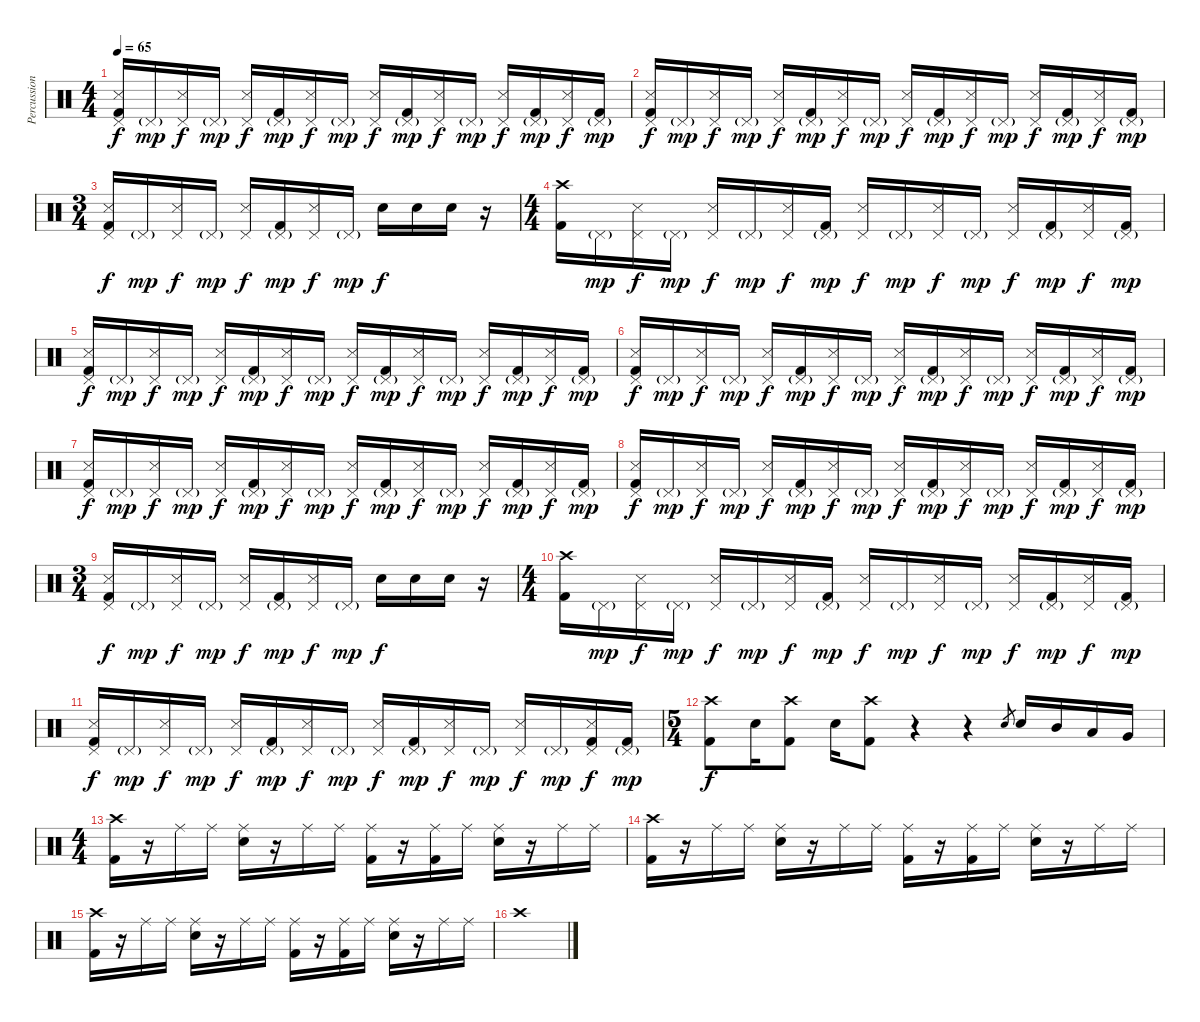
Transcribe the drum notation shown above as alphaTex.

\track ("Percussioni" "Percussion") {instrument percussion}
\staff {score}
\articulation defaults
\ts (4 4)
\tempo 65
\clef neutral
\ks c
("Pedal Hi-Hat (hit)" "Snare (side stick) 3" "Kick (hit) 2").16{dy f} "Pedal Hi-Hat (hit)"{g}.16{dy mp} ("Pedal Hi-Hat (hit)" "Snare (side stick) 3").16{dy f} "Pedal Hi-Hat (hit)"{g}.16{dy mp} ("Pedal Hi-Hat (hit)" "Snare (side stick) 3").16{dy f} ("Pedal Hi-Hat (hit)"{g} "Kick (hit) 2").16{dy mp} ("Pedal Hi-Hat (hit)" "Snare (side stick) 3").16{dy f} "Pedal Hi-Hat (hit)"{g}.16{dy mp} ("Pedal Hi-Hat (hit)" "Snare (side stick) 3").16{dy f} ("Pedal Hi-Hat (hit)"{g} "Kick (hit) 2").16{dy mp} ("Pedal Hi-Hat (hit)" "Snare (side stick) 3").16{dy f} "Pedal Hi-Hat (hit)"{g}.16{dy mp} ("Pedal Hi-Hat (hit)" "Snare (side stick) 3").16{dy f} ("Pedal Hi-Hat (hit)"{g} "Kick (hit) 2").16{dy mp} ("Pedal Hi-Hat (hit)" "Snare (side stick) 3").16{dy f} ("Pedal Hi-Hat (hit)"{g} "Kick (hit) 2").16{dy mp} |
("Pedal Hi-Hat (hit)" "Snare (side stick) 3" "Kick (hit) 2").16{dy f} "Pedal Hi-Hat (hit)"{g}.16{dy mp} ("Pedal Hi-Hat (hit)" "Snare (side stick) 3").16{dy f} "Pedal Hi-Hat (hit)"{g}.16{dy mp} ("Pedal Hi-Hat (hit)" "Snare (side stick) 3").16{dy f} ("Pedal Hi-Hat (hit)"{g} "Kick (hit) 2").16{dy mp} ("Pedal Hi-Hat (hit)" "Snare (side stick) 3").16{dy f} "Pedal Hi-Hat (hit)"{g}.16{dy mp} ("Pedal Hi-Hat (hit)" "Snare (side stick) 3").16{dy f} ("Pedal Hi-Hat (hit)"{g} "Kick (hit) 2").16{dy mp} ("Pedal Hi-Hat (hit)" "Snare (side stick) 3").16{dy f} "Pedal Hi-Hat (hit)"{g}.16{dy mp} ("Pedal Hi-Hat (hit)" "Snare (side stick) 3").16{dy f} ("Pedal Hi-Hat (hit)"{g} "Kick (hit) 2").16{dy mp} ("Pedal Hi-Hat (hit)" "Snare (side stick) 3").16{dy f} ("Pedal Hi-Hat (hit)"{g} "Kick (hit) 2").16{dy mp} |
\ts (3 4)
("Pedal Hi-Hat (hit)" "Snare (side stick) 3" "Kick (hit) 2").16{dy f} "Pedal Hi-Hat (hit)"{g}.16{dy mp} ("Pedal Hi-Hat (hit)" "Snare (side stick) 3").16{dy f} "Pedal Hi-Hat (hit)"{g}.16{dy mp} ("Pedal Hi-Hat (hit)" "Snare (side stick) 3").16{dy f} ("Pedal Hi-Hat (hit)"{g} "Kick (hit) 2").16{dy mp} ("Pedal Hi-Hat (hit)" "Snare (side stick) 3").16{dy f} "Pedal Hi-Hat (hit)"{g}.16{dy mp} "Snare (hit) 2".16{dy f} "Snare (hit) 2".16 "Snare (hit) 2".16 r.16 |
\ts (4 4)
("Crash high (hit)" "Kick (hit) 2").16 "Pedal Hi-Hat (hit)"{g}.16{dy mp} ("Pedal Hi-Hat (hit)" "Snare (side stick) 3").16{dy f} "Pedal Hi-Hat (hit)"{g}.16{dy mp} ("Pedal Hi-Hat (hit)" "Snare (side stick) 3").16{dy f} "Pedal Hi-Hat (hit)"{g}.16{dy mp} ("Pedal Hi-Hat (hit)" "Snare (side stick) 3").16{dy f} ("Pedal Hi-Hat (hit)"{g} "Kick (hit) 2").16{dy mp} ("Pedal Hi-Hat (hit)" "Snare (side stick) 3").16{dy f} "Pedal Hi-Hat (hit)"{g}.16{dy mp} ("Pedal Hi-Hat (hit)" "Snare (side stick) 3").16{dy f} "Pedal Hi-Hat (hit)"{g}.16{dy mp} ("Pedal Hi-Hat (hit)" "Snare (side stick) 3").16{dy f} ("Pedal Hi-Hat (hit)"{g} "Kick (hit) 2").16{dy mp} ("Pedal Hi-Hat (hit)" "Snare (side stick) 3").16{dy f} ("Pedal Hi-Hat (hit)"{g} "Kick (hit) 2").16{dy mp} |
("Pedal Hi-Hat (hit)" "Snare (side stick) 3" "Kick (hit) 2").16{dy f} "Pedal Hi-Hat (hit)"{g}.16{dy mp} ("Pedal Hi-Hat (hit)" "Snare (side stick) 3").16{dy f} "Pedal Hi-Hat (hit)"{g}.16{dy mp} ("Pedal Hi-Hat (hit)" "Snare (side stick) 3").16{dy f} ("Pedal Hi-Hat (hit)"{g} "Kick (hit) 2").16{dy mp} ("Pedal Hi-Hat (hit)" "Snare (side stick) 3").16{dy f} "Pedal Hi-Hat (hit)"{g}.16{dy mp} ("Pedal Hi-Hat (hit)" "Snare (side stick) 3").16{dy f} ("Pedal Hi-Hat (hit)"{g} "Kick (hit) 2").16{dy mp} ("Pedal Hi-Hat (hit)" "Snare (side stick) 3").16{dy f} "Pedal Hi-Hat (hit)"{g}.16{dy mp} ("Pedal Hi-Hat (hit)" "Snare (side stick) 3").16{dy f} ("Pedal Hi-Hat (hit)"{g} "Kick (hit) 2").16{dy mp} ("Pedal Hi-Hat (hit)" "Snare (side stick) 3").16{dy f} ("Pedal Hi-Hat (hit)"{g} "Kick (hit) 2").16{dy mp} |
("Pedal Hi-Hat (hit)" "Snare (side stick) 3" "Kick (hit) 2").16{dy f} "Pedal Hi-Hat (hit)"{g}.16{dy mp} ("Pedal Hi-Hat (hit)" "Snare (side stick) 3").16{dy f} "Pedal Hi-Hat (hit)"{g}.16{dy mp} ("Pedal Hi-Hat (hit)" "Snare (side stick) 3").16{dy f} ("Pedal Hi-Hat (hit)"{g} "Kick (hit) 2").16{dy mp} ("Pedal Hi-Hat (hit)" "Snare (side stick) 3").16{dy f} "Pedal Hi-Hat (hit)"{g}.16{dy mp} ("Pedal Hi-Hat (hit)" "Snare (side stick) 3").16{dy f} ("Pedal Hi-Hat (hit)"{g} "Kick (hit) 2").16{dy mp} ("Pedal Hi-Hat (hit)" "Snare (side stick) 3").16{dy f} "Pedal Hi-Hat (hit)"{g}.16{dy mp} ("Pedal Hi-Hat (hit)" "Snare (side stick) 3").16{dy f} ("Pedal Hi-Hat (hit)"{g} "Kick (hit) 2").16{dy mp} ("Pedal Hi-Hat (hit)" "Snare (side stick) 3").16{dy f} ("Pedal Hi-Hat (hit)"{g} "Kick (hit) 2").16{dy mp} |
("Pedal Hi-Hat (hit)" "Snare (side stick) 3" "Kick (hit) 2").16{dy f} "Pedal Hi-Hat (hit)"{g}.16{dy mp} ("Pedal Hi-Hat (hit)" "Snare (side stick) 3").16{dy f} "Pedal Hi-Hat (hit)"{g}.16{dy mp} ("Pedal Hi-Hat (hit)" "Snare (side stick) 3").16{dy f} ("Pedal Hi-Hat (hit)"{g} "Kick (hit) 2").16{dy mp} ("Pedal Hi-Hat (hit)" "Snare (side stick) 3").16{dy f} "Pedal Hi-Hat (hit)"{g}.16{dy mp} ("Pedal Hi-Hat (hit)" "Snare (side stick) 3").16{dy f} ("Pedal Hi-Hat (hit)"{g} "Kick (hit) 2").16{dy mp} ("Pedal Hi-Hat (hit)" "Snare (side stick) 3").16{dy f} "Pedal Hi-Hat (hit)"{g}.16{dy mp} ("Pedal Hi-Hat (hit)" "Snare (side stick) 3").16{dy f} ("Pedal Hi-Hat (hit)"{g} "Kick (hit) 2").16{dy mp} ("Pedal Hi-Hat (hit)" "Snare (side stick) 3").16{dy f} ("Pedal Hi-Hat (hit)"{g} "Kick (hit) 2").16{dy mp} |
("Pedal Hi-Hat (hit)" "Snare (side stick) 3" "Kick (hit) 2").16{dy f} "Pedal Hi-Hat (hit)"{g}.16{dy mp} ("Pedal Hi-Hat (hit)" "Snare (side stick) 3").16{dy f} "Pedal Hi-Hat (hit)"{g}.16{dy mp} ("Pedal Hi-Hat (hit)" "Snare (side stick) 3").16{dy f} ("Pedal Hi-Hat (hit)"{g} "Kick (hit) 2").16{dy mp} ("Pedal Hi-Hat (hit)" "Snare (side stick) 3").16{dy f} "Pedal Hi-Hat (hit)"{g}.16{dy mp} ("Pedal Hi-Hat (hit)" "Snare (side stick) 3").16{dy f} ("Pedal Hi-Hat (hit)"{g} "Kick (hit) 2").16{dy mp} ("Pedal Hi-Hat (hit)" "Snare (side stick) 3").16{dy f} "Pedal Hi-Hat (hit)"{g}.16{dy mp} ("Pedal Hi-Hat (hit)" "Snare (side stick) 3").16{dy f} ("Pedal Hi-Hat (hit)"{g} "Kick (hit) 2").16{dy mp} ("Pedal Hi-Hat (hit)" "Snare (side stick) 3").16{dy f} ("Pedal Hi-Hat (hit)"{g} "Kick (hit) 2").16{dy mp} |
\ts (3 4)
("Pedal Hi-Hat (hit)" "Snare (side stick) 3" "Kick (hit) 2").16{dy f} "Pedal Hi-Hat (hit)"{g}.16{dy mp} ("Pedal Hi-Hat (hit)" "Snare (side stick) 3").16{dy f} "Pedal Hi-Hat (hit)"{g}.16{dy mp} ("Pedal Hi-Hat (hit)" "Snare (side stick) 3").16{dy f} ("Pedal Hi-Hat (hit)"{g} "Kick (hit) 2").16{dy mp} ("Pedal Hi-Hat (hit)" "Snare (side stick) 3").16{dy f} "Pedal Hi-Hat (hit)"{g}.16{dy mp} "Snare (hit) 2".16{dy f} "Snare (hit) 2".16 "Snare (hit) 2".16 r.16 |
\ts (4 4)
("Crash high (hit)" "Kick (hit) 2").16 "Pedal Hi-Hat (hit)"{g}.16{dy mp} ("Pedal Hi-Hat (hit)" "Snare (side stick) 3").16{dy f} "Pedal Hi-Hat (hit)"{g}.16{dy mp} ("Pedal Hi-Hat (hit)" "Snare (side stick) 3").16{dy f} "Pedal Hi-Hat (hit)"{g}.16{dy mp} ("Pedal Hi-Hat (hit)" "Snare (side stick) 3").16{dy f} ("Pedal Hi-Hat (hit)"{g} "Kick (hit) 2").16{dy mp} ("Pedal Hi-Hat (hit)" "Snare (side stick) 3").16{dy f} "Pedal Hi-Hat (hit)"{g}.16{dy mp} ("Pedal Hi-Hat (hit)" "Snare (side stick) 3").16{dy f} "Pedal Hi-Hat (hit)"{g}.16{dy mp} ("Pedal Hi-Hat (hit)" "Snare (side stick) 3").16{dy f} ("Pedal Hi-Hat (hit)"{g} "Kick (hit) 2").16{dy mp} ("Pedal Hi-Hat (hit)" "Snare (side stick) 3").16{dy f} ("Pedal Hi-Hat (hit)"{g} "Kick (hit) 2").16{dy mp} |
("Pedal Hi-Hat (hit)" "Snare (side stick) 3" "Kick (hit) 2").16{dy f} "Pedal Hi-Hat (hit)"{g}.16{dy mp} ("Pedal Hi-Hat (hit)" "Snare (side stick) 3").16{dy f} "Pedal Hi-Hat (hit)"{g}.16{dy mp} ("Pedal Hi-Hat (hit)" "Snare (side stick) 3").16{dy f} ("Pedal Hi-Hat (hit)"{g} "Kick (hit) 2").16{dy mp} ("Pedal Hi-Hat (hit)" "Snare (side stick) 3").16{dy f} "Pedal Hi-Hat (hit)"{g}.16{dy mp} ("Pedal Hi-Hat (hit)" "Snare (side stick) 3").16{dy f} ("Pedal Hi-Hat (hit)"{g} "Kick (hit) 2").16{dy mp} ("Pedal Hi-Hat (hit)" "Snare (side stick) 3").16{dy f} "Pedal Hi-Hat (hit)"{g}.16{dy mp} ("Pedal Hi-Hat (hit)" "Snare (side stick) 3").16{dy f} "Pedal Hi-Hat (hit)"{g}.16{dy mp} ("Pedal Hi-Hat (hit)" "Snare (side stick) 3" "Kick (hit) 2").16{dy f} ("Pedal Hi-Hat (hit)"{g} "Kick (hit) 2").16{dy mp} |
\ts (5 4)
("Crash high (hit)" "Kick (hit) 2").8{dy f} "Snare (hit) 2".16 ("Crash high (hit)" "Kick (hit) 2").8 "Snare (hit) 2".16 ("Crash high (hit)" "Kick (hit) 2").8 r.4 r.4 "Snare (hit) 2".8{gr} "Snare (hit) 2".16 "Mid Tom (hit)".16 "Low Tom (hit)".16 "Very Low Tom (hit)".16 |
\ts (4 4)
("Crash high (hit)" "Kick (hit) 2").16 r.16 "Ride (middle)".16 "Ride (middle)".16 ("Ride (middle)" "Snare (hit) 2").16 r.16 "Ride (middle)".16 "Ride (middle)".16 ("Ride (middle)" "Kick (hit) 2").16 r.16 ("Ride (middle)" "Kick (hit) 2").16 "Ride (middle)".16 ("Ride (middle)" "Snare (hit) 2").16 r.16 "Ride (middle)".16 "Ride (middle)".16 |
("Crash high (hit)" "Kick (hit) 2").16 r.16 "Ride (middle)".16 "Ride (middle)".16 ("Ride (middle)" "Snare (hit) 2").16 r.16 "Ride (middle)".16 "Ride (middle)".16 ("Ride (middle)" "Kick (hit) 2").16 r.16 ("Ride (middle)" "Kick (hit) 2").16 "Ride (middle)".16 ("Ride (middle)" "Snare (hit) 2").16 r.16 "Ride (middle)".16 "Ride (middle)".16 |
("Crash high (hit)" "Kick (hit) 2").16 r.16 "Ride (middle)".16 "Ride (middle)".16 ("Ride (middle)" "Snare (hit) 2").16 r.16 "Ride (middle)".16 "Ride (middle)".16 ("Ride (middle)" "Kick (hit) 2").16 r.16 ("Ride (middle)" "Kick (hit) 2").16 "Ride (middle)".16 ("Ride (middle)" "Snare (hit) 2").16 r.16 "Ride (middle)".16 "Ride (middle)".16 |
"Crash high (hit)".1
